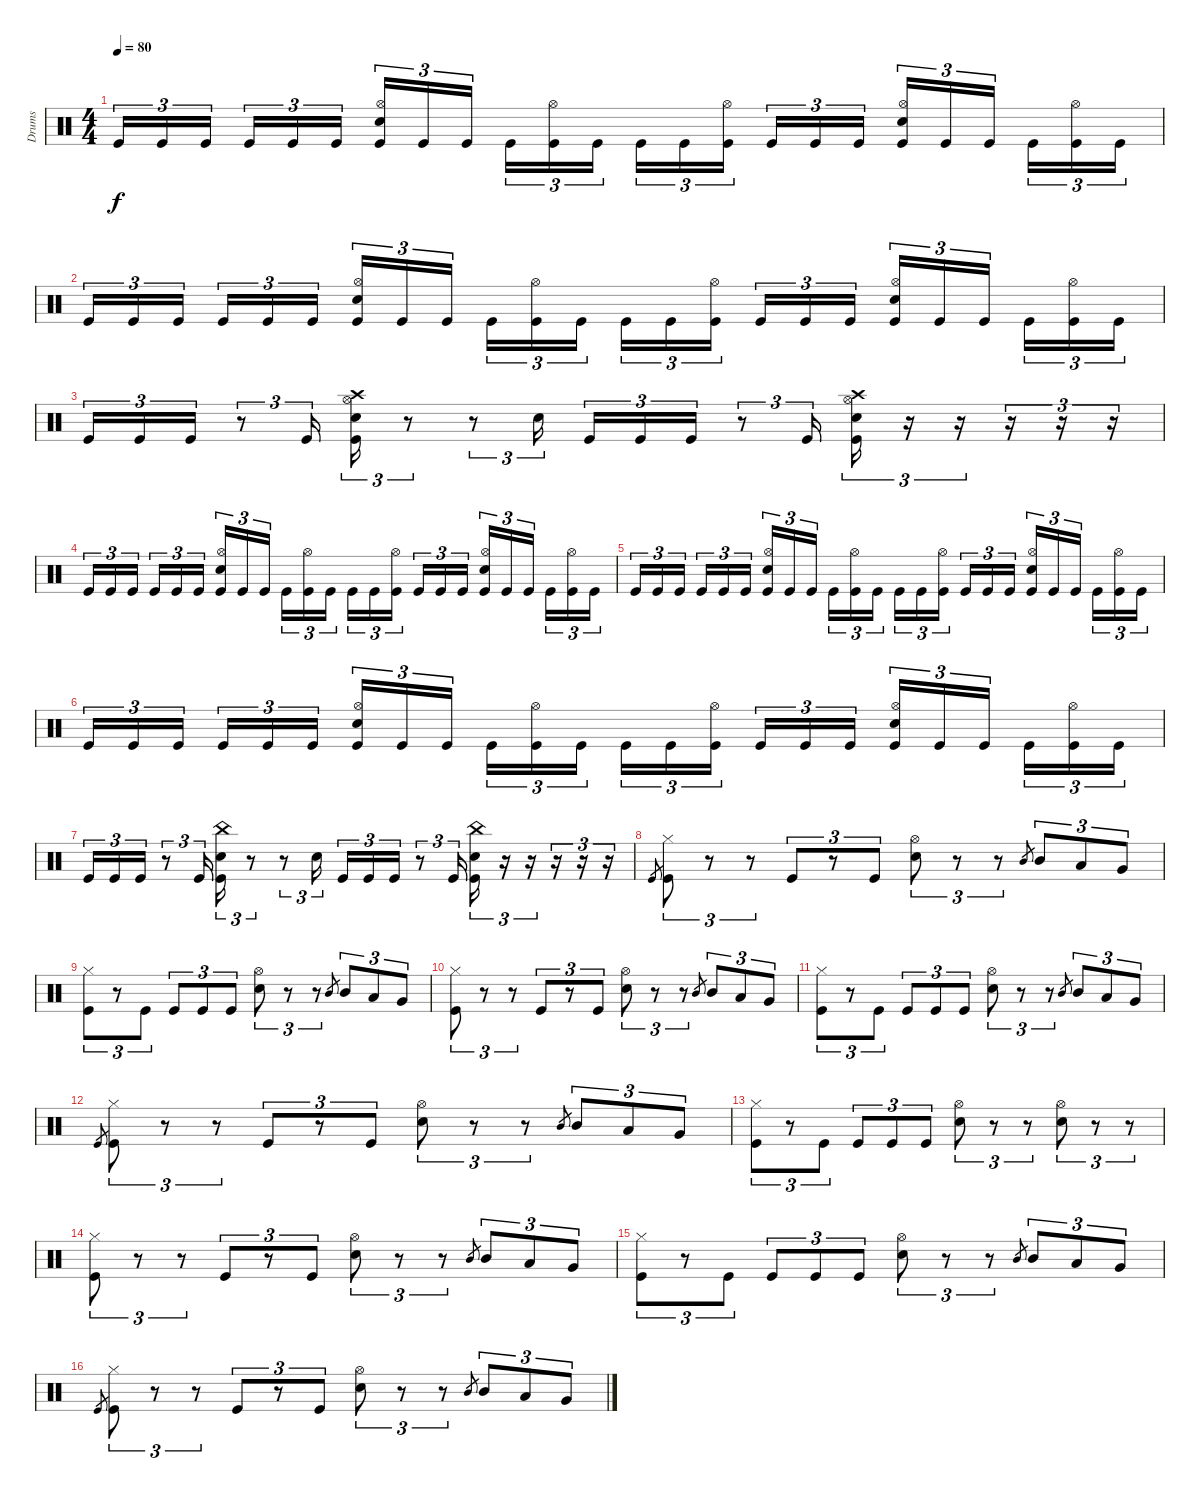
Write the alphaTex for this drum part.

\track ("Drums" "Drums") {instrument percussion}
\staff {score}
\articulation defaults
\ts (4 4)
\tempo 80
\clef neutral
\ks c "Kick (hit)".16{tu (3 2) dy f} "Kick (hit)".16{tu (3 2)} "Kick (hit)".16{tu (3 2)} "Kick (hit)".16{tu (3 2)} "Kick (hit)".16{tu (3 2)} "Kick (hit)".16{tu (3 2)}
("Hi-Hat (open)" "Snare (hit) 2" "Kick (hit)").16{tu (3 2)} "Kick (hit)".16{tu (3 2)} "Kick (hit)".16{tu (3 2)} "Kick (hit)".16{tu (3 2)} ("Hi-Hat (open)" "Kick (hit)").16{tu (3 2)} "Kick (hit)".16{tu (3 2)} "Kick (hit)".16{tu (3 2)} "Kick (hit)".16{tu (3 2)} ("Hi-Hat (open)" "Kick (hit)").16{tu (3 2)} "Kick (hit)".16{tu (3 2)} "Kick (hit)".16{tu (3 2)} "Kick (hit)".16{tu (3 2)} ("Hi-Hat (open)" "Snare (hit) 2" "Kick (hit)").16{tu (3 2)} "Kick (hit)".16{tu (3 2)} "Kick (hit)".16{tu (3 2)} "Kick (hit)".16{tu (3 2)} ("Hi-Hat (open)" "Kick (hit)").16{tu (3 2)} "Kick (hit)".16{tu (3 2)} |
"Kick (hit)".16{tu (3 2)} "Kick (hit)".16{tu (3 2)} "Kick (hit)".16{tu (3 2)} "Kick (hit)".16{tu (3 2)} "Kick (hit)".16{tu (3 2)} "Kick (hit)".16{tu (3 2)} ("Hi-Hat (open)" "Snare (hit) 2" "Kick (hit)").16{tu (3 2)} "Kick (hit)".16{tu (3 2)} "Kick (hit)".16{tu (3 2)} "Kick (hit)".16{tu (3 2)} ("Hi-Hat (open)" "Kick (hit)").16{tu (3 2)} "Kick (hit)".16{tu (3 2)} "Kick (hit)".16{tu (3 2)} "Kick (hit)".16{tu (3 2)} ("Hi-Hat (open)" "Kick (hit)").16{tu (3 2)} "Kick (hit)".16{tu (3 2)} "Kick (hit)".16{tu (3 2)} "Kick (hit)".16{tu (3 2)} ("Hi-Hat (open)" "Snare (hit) 2" "Kick (hit)").16{tu (3 2)} "Kick (hit)".16{tu (3 2)} "Kick (hit)".16{tu (3 2)} "Kick (hit)".16{tu (3 2)} ("Hi-Hat (open)" "Kick (hit)").16{tu (3 2)} "Kick (hit)".16{tu (3 2)} |
"Kick (hit)".16{tu (3 2)} "Kick (hit)".16{tu (3 2)} "Kick (hit)".16{tu (3 2)} r.8{tu (3 2)} "Kick (hit)".16{tu (3 2)} ("Crash high (hit)" "Hi-Hat (open)" "Snare (hit) 2" "Kick (hit)").16{tu (3 2)} r.8{tu (3 2)} r.8{tu (3 2)} "Snare (hit) 2".16{tu (3 2)} "Kick (hit)".16{tu (3 2)} "Kick (hit)".16{tu (3 2)} "Kick (hit)".16{tu (3 2)} r.8{tu (3 2)} "Kick (hit)".16{tu (3 2)} ("Crash high (hit)" "Hi-Hat (open)" "Snare (hit) 2" "Kick (hit)").16{tu (3 2)} r.16{tu (3 2)} r.16{tu (3 2)} r.16{tu (3 2)} r.16{tu (3 2)} r.16{tu (3 2)} |
"Kick (hit)".16{tu (3 2)} "Kick (hit)".16{tu (3 2)} "Kick (hit)".16{tu (3 2)} "Kick (hit)".16{tu (3 2)} "Kick (hit)".16{tu (3 2)} "Kick (hit)".16{tu (3 2)} ("Hi-Hat (open)" "Snare (hit) 2" "Kick (hit)").16{tu (3 2)} "Kick (hit)".16{tu (3 2)} "Kick (hit)".16{tu (3 2)} "Kick (hit)".16{tu (3 2)} ("Hi-Hat (open)" "Kick (hit)").16{tu (3 2)} "Kick (hit)".16{tu (3 2)} "Kick (hit)".16{tu (3 2)} "Kick (hit)".16{tu (3 2)} ("Hi-Hat (open)" "Kick (hit)").16{tu (3 2)} "Kick (hit)".16{tu (3 2)} "Kick (hit)".16{tu (3 2)} "Kick (hit)".16{tu (3 2)} ("Hi-Hat (open)" "Snare (hit) 2" "Kick (hit)").16{tu (3 2)} "Kick (hit)".16{tu (3 2)} "Kick (hit)".16{tu (3 2)} "Kick (hit)".16{tu (3 2)} ("Hi-Hat (open)" "Kick (hit)").16{tu (3 2)} "Kick (hit)".16{tu (3 2)} |
"Kick (hit)".16{tu (3 2)} "Kick (hit)".16{tu (3 2)} "Kick (hit)".16{tu (3 2)} "Kick (hit)".16{tu (3 2)} "Kick (hit)".16{tu (3 2)} "Kick (hit)".16{tu (3 2)} ("Hi-Hat (open)" "Snare (hit) 2" "Kick (hit)").16{tu (3 2)} "Kick (hit)".16{tu (3 2)} "Kick (hit)".16{tu (3 2)} "Kick (hit)".16{tu (3 2)} ("Hi-Hat (open)" "Kick (hit)").16{tu (3 2)} "Kick (hit)".16{tu (3 2)} "Kick (hit)".16{tu (3 2)} "Kick (hit)".16{tu (3 2)} ("Hi-Hat (open)" "Kick (hit)").16{tu (3 2)} "Kick (hit)".16{tu (3 2)} "Kick (hit)".16{tu (3 2)} "Kick (hit)".16{tu (3 2)} ("Hi-Hat (open)" "Snare (hit) 2" "Kick (hit)").16{tu (3 2)} "Kick (hit)".16{tu (3 2)} "Kick (hit)".16{tu (3 2)} "Kick (hit)".16{tu (3 2)} ("Hi-Hat (open)" "Kick (hit)").16{tu (3 2)} "Kick (hit)".16{tu (3 2)} |
"Kick (hit)".16{tu (3 2)} "Kick (hit)".16{tu (3 2)} "Kick (hit)".16{tu (3 2)} "Kick (hit)".16{tu (3 2)} "Kick (hit)".16{tu (3 2)} "Kick (hit)".16{tu (3 2)} ("Hi-Hat (open)" "Snare (hit) 2" "Kick (hit)").16{tu (3 2)} "Kick (hit)".16{tu (3 2)} "Kick (hit)".16{tu (3 2)} "Kick (hit)".16{tu (3 2)} ("Hi-Hat (open)" "Kick (hit)").16{tu (3 2)} "Kick (hit)".16{tu (3 2)} "Kick (hit)".16{tu (3 2)} "Kick (hit)".16{tu (3 2)} ("Hi-Hat (open)" "Kick (hit)").16{tu (3 2)} "Kick (hit)".16{tu (3 2)} "Kick (hit)".16{tu (3 2)} "Kick (hit)".16{tu (3 2)} ("Hi-Hat (open)" "Snare (hit) 2" "Kick (hit)").16{tu (3 2)} "Kick (hit)".16{tu (3 2)} "Kick (hit)".16{tu (3 2)} "Kick (hit)".16{tu (3 2)} ("Hi-Hat (open)" "Kick (hit)").16{tu (3 2)} "Kick (hit)".16{tu (3 2)} |
"Kick (hit)".16{tu (3 2)} "Kick (hit)".16{tu (3 2)} "Kick (hit)".16{tu (3 2)} r.8{tu (3 2)} "Kick (hit)".16{tu (3 2)} ("China (hit)" "Snare (hit) 2" "Kick (hit)").16{tu (3 2)} r.8{tu (3 2)} r.8{tu (3 2)} "Snare (hit) 2".16{tu (3 2)} "Kick (hit)".16{tu (3 2)} "Kick (hit)".16{tu (3 2)} "Kick (hit)".16{tu (3 2)} r.8{tu (3 2)} "Kick (hit)".16{tu (3 2)} ("China (hit)" "Snare (hit) 2" "Kick (hit)").16{tu (3 2)} r.16{tu (3 2)} r.16{tu (3 2)} r.16{tu (3 2)} r.16{tu (3 2)} r.16{tu (3 2)} |
"Kick (hit)".8{gr} ("Hi-Hat (closed)" "Kick (hit)").8{tu (3 2)} r.8{tu (3 2)} r.8{tu (3 2)} "Kick (hit)".8{tu (3 2)} r.8{tu (3 2)} "Kick (hit)".8{tu (3 2)} ("Hi-Hat (open)" "Snare (hit) 2").8{tu (3 2)} r.8{tu (3 2)} r.8{tu (3 2)} "Mid Tom (hit)".8{gr} "Mid Tom (hit)".8{tu (3 2)} "Low Tom (hit)".8{tu (3 2)} "Very Low Tom (hit)".8{tu (3 2)} |
("Hi-Hat (closed)" "Kick (hit)").8{tu (3 2)} r.8{tu (3 2)} "Kick (hit)".8{tu (3 2)} "Kick (hit)".8{tu (3 2)} "Kick (hit)".8{tu (3 2)} "Kick (hit)".8{tu (3 2)} ("Hi-Hat (open)" "Snare (hit) 2").8{tu (3 2)} r.8{tu (3 2)} r.8{tu (3 2)} "Mid Tom (hit)".8{gr} "Mid Tom (hit)".8{tu (3 2)} "Low Tom (hit)".8{tu (3 2)} "Very Low Tom (hit)".8{tu (3 2)} |
("Hi-Hat (closed)" "Kick (hit)").8{tu (3 2)} r.8{tu (3 2)} r.8{tu (3 2)} "Kick (hit)".8{tu (3 2)} r.8{tu (3 2)} "Kick (hit)".8{tu (3 2)} ("Hi-Hat (open)" "Snare (hit) 2").8{tu (3 2)} r.8{tu (3 2)} r.8{tu (3 2)} "Mid Tom (hit)".8{gr} "Mid Tom (hit)".8{tu (3 2)} "Low Tom (hit)".8{tu (3 2)} "Very Low Tom (hit)".8{tu (3 2)} |
("Hi-Hat (closed)" "Kick (hit)").8{tu (3 2)} r.8{tu (3 2)} "Kick (hit)".8{tu (3 2)} "Kick (hit)".8{tu (3 2)} "Kick (hit)".8{tu (3 2)} "Kick (hit)".8{tu (3 2)} ("Hi-Hat (open)" "Snare (hit) 2").8{tu (3 2)} r.8{tu (3 2)} r.8{tu (3 2)} "Mid Tom (hit)".8{gr} "Mid Tom (hit)".8{tu (3 2)} "Low Tom (hit)".8{tu (3 2)} "Very Low Tom (hit)".8{tu (3 2)} |
"Kick (hit)".8{gr} ("Hi-Hat (closed)" "Kick (hit)").8{tu (3 2)} r.8{tu (3 2)} r.8{tu (3 2)} "Kick (hit)".8{tu (3 2)} r.8{tu (3 2)} "Kick (hit)".8{tu (3 2)} ("Hi-Hat (open)" "Snare (hit) 2").8{tu (3 2)} r.8{tu (3 2)} r.8{tu (3 2)} "Mid Tom (hit)".8{gr} "Mid Tom (hit)".8{tu (3 2)} "Low Tom (hit)".8{tu (3 2)} "Very Low Tom (hit)".8{tu (3 2)} |
("Hi-Hat (closed)" "Kick (hit)").8{tu (3 2)} r.8{tu (3 2)} "Kick (hit)".8{tu (3 2)} "Kick (hit)".8{tu (3 2)} "Kick (hit)".8{tu (3 2)} "Kick (hit)".8{tu (3 2)} ("Hi-Hat (open)" "Snare (hit) 2").8{tu (3 2)} r.8{tu (3 2)} r.8{tu (3 2)} ("Hi-Hat (open)" "Snare (hit) 2").8{tu (3 2)} r.8{tu (3 2)} r.8{tu (3 2)} |
("Hi-Hat (closed)" "Kick (hit)").8{tu (3 2)} r.8{tu (3 2)} r.8{tu (3 2)} "Kick (hit)".8{tu (3 2)} r.8{tu (3 2)} "Kick (hit)".8{tu (3 2)} ("Hi-Hat (open)" "Snare (hit) 2").8{tu (3 2)} r.8{tu (3 2)} r.8{tu (3 2)} "Mid Tom (hit)".8{gr} "Mid Tom (hit)".8{tu (3 2)} "Low Tom (hit)".8{tu (3 2)} "Very Low Tom (hit)".8{tu (3 2)} |
("Hi-Hat (closed)" "Kick (hit)").8{tu (3 2)} r.8{tu (3 2)} "Kick (hit)".8{tu (3 2)} "Kick (hit)".8{tu (3 2)} "Kick (hit)".8{tu (3 2)} "Kick (hit)".8{tu (3 2)} ("Hi-Hat (open)" "Snare (hit) 2").8{tu (3 2)} r.8{tu (3 2)} r.8{tu (3 2)} "Mid Tom (hit)".8{gr} "Mid Tom (hit)".8{tu (3 2)} "Low Tom (hit)".8{tu (3 2)} "Very Low Tom (hit)".8{tu (3 2)} |
"Kick (hit)".8{gr} ("Hi-Hat (closed)" "Kick (hit)").8{tu (3 2)} r.8{tu (3 2)} r.8{tu (3 2)} "Kick (hit)".8{tu (3 2)} r.8{tu (3 2)} "Kick (hit)".8{tu (3 2)} ("Hi-Hat (open)" "Snare (hit) 2").8{tu (3 2)} r.8{tu (3 2)} r.8{tu (3 2)} "Mid Tom (hit)".8{gr} "Mid Tom (hit)".8{tu (3 2)} "Low Tom (hit)".8{tu (3 2)} "Very Low Tom (hit)".8{tu (3 2)}
